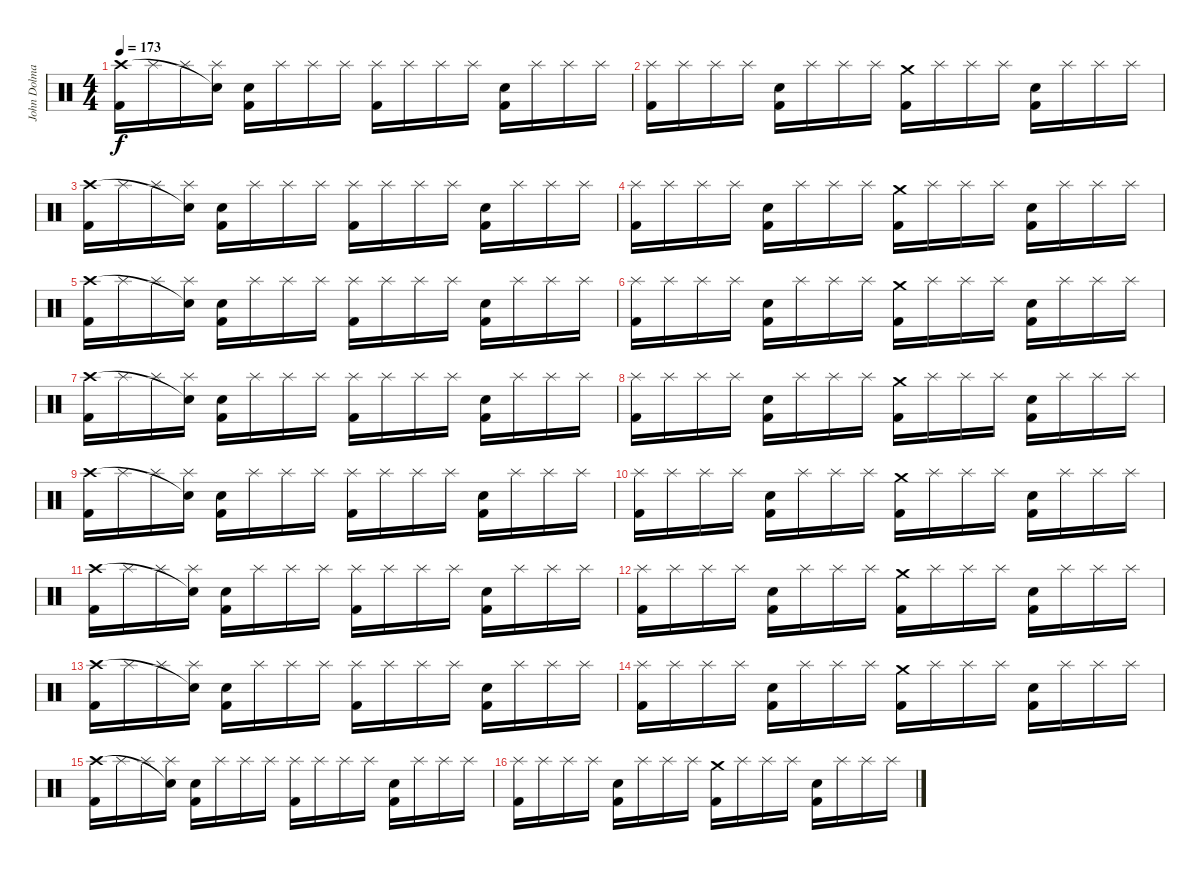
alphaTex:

\track ("John Dolmayan" "John Dolma") {instrument percussion}
\staff {score}
\articulation defaults
\ts (4 4)
\tempo 173
\clef neutral
\ks c
("Kick (hit) 2" "Crash high (hit)").16{dy f} "Splash (hit)".16 "Splash (hit)".16 ("Splash (hit)" "Snare (hit)"{t}).16 ("Electric Snare (hit)" "Kick (hit) 2").16 "Splash (hit)".16 "Splash (hit)".16 "Splash (hit)".16 ("Kick (hit) 2" "Splash (hit)").16 "Splash (hit)".16 "Splash (hit)".16 "Splash (hit)".16 ("Electric Snare (hit)" "Kick (hit) 2").16 "Splash (hit)".16 "Splash (hit)".16 "Splash (hit)".16 |
("Kick (hit) 2" "Splash (hit)").16 "Splash (hit)".16 "Splash (hit)".16 "Splash (hit)".16 ("Electric Snare (hit)" "Kick (hit) 2").16 "Splash (hit)".16 "Splash (hit)".16 "Splash (hit)".16 ("Kick (hit) 2" "Crash medium (hit)").16 "Splash (hit)".16 "Splash (hit)".16 "Splash (hit)".16 ("Electric Snare (hit)" "Kick (hit) 2").16 "Splash (hit)".16 "Splash (hit)".16 "Splash (hit)".16 |
("Kick (hit) 2" "Crash high (hit)").16 "Splash (hit)".16 "Splash (hit)".16 ("Splash (hit)" "Snare (hit)"{t}).16 ("Electric Snare (hit)" "Kick (hit) 2").16 "Splash (hit)".16 "Splash (hit)".16 "Splash (hit)".16 ("Kick (hit) 2" "Splash (hit)").16 "Splash (hit)".16 "Splash (hit)".16 "Splash (hit)".16 ("Electric Snare (hit)" "Kick (hit) 2").16 "Splash (hit)".16 "Splash (hit)".16 "Splash (hit)".16 |
("Kick (hit) 2" "Splash (hit)").16 "Splash (hit)".16 "Splash (hit)".16 "Splash (hit)".16 ("Electric Snare (hit)" "Kick (hit) 2").16 "Splash (hit)".16 "Splash (hit)".16 "Splash (hit)".16 ("Kick (hit) 2" "Crash medium (hit)").16 "Splash (hit)".16 "Splash (hit)".16 "Splash (hit)".16 ("Electric Snare (hit)" "Kick (hit) 2").16 "Splash (hit)".16 "Splash (hit)".16 "Splash (hit)".16 |
("Kick (hit) 2" "Crash high (hit)").16 "Splash (hit)".16 "Splash (hit)".16 ("Splash (hit)" "Snare (hit)"{t}).16 ("Electric Snare (hit)" "Kick (hit) 2").16 "Splash (hit)".16 "Splash (hit)".16 "Splash (hit)".16 ("Kick (hit) 2" "Splash (hit)").16 "Splash (hit)".16 "Splash (hit)".16 "Splash (hit)".16 ("Electric Snare (hit)" "Kick (hit) 2").16 "Splash (hit)".16 "Splash (hit)".16 "Splash (hit)".16 |
("Kick (hit) 2" "Splash (hit)").16 "Splash (hit)".16 "Splash (hit)".16 "Splash (hit)".16 ("Electric Snare (hit)" "Kick (hit) 2").16 "Splash (hit)".16 "Splash (hit)".16 "Splash (hit)".16 ("Kick (hit) 2" "Crash medium (hit)").16 "Splash (hit)".16 "Splash (hit)".16 "Splash (hit)".16 ("Electric Snare (hit)" "Kick (hit) 2").16 "Splash (hit)".16 "Splash (hit)".16 "Splash (hit)".16 |
("Kick (hit) 2" "Crash high (hit)").16 "Splash (hit)".16 "Splash (hit)".16 ("Splash (hit)" "Snare (hit)"{t}).16 ("Electric Snare (hit)" "Kick (hit) 2").16 "Splash (hit)".16 "Splash (hit)".16 "Splash (hit)".16 ("Kick (hit) 2" "Splash (hit)").16 "Splash (hit)".16 "Splash (hit)".16 "Splash (hit)".16 ("Electric Snare (hit)" "Kick (hit) 2").16 "Splash (hit)".16 "Splash (hit)".16 "Splash (hit)".16 |
("Kick (hit) 2" "Splash (hit)").16 "Splash (hit)".16 "Splash (hit)".16 "Splash (hit)".16 ("Electric Snare (hit)" "Kick (hit) 2").16 "Splash (hit)".16 "Splash (hit)".16 "Splash (hit)".16 ("Kick (hit) 2" "Crash medium (hit)").16 "Splash (hit)".16 "Splash (hit)".16 "Splash (hit)".16 ("Electric Snare (hit)" "Kick (hit) 2").16 "Splash (hit)".16 "Splash (hit)".16 "Splash (hit)".16 |
("Kick (hit) 2" "Crash high (hit)").16 "Splash (hit)".16 "Splash (hit)".16 ("Splash (hit)" "Snare (hit)"{t}).16 ("Electric Snare (hit)" "Kick (hit) 2").16 "Splash (hit)".16 "Splash (hit)".16 "Splash (hit)".16 ("Kick (hit) 2" "Splash (hit)").16 "Splash (hit)".16 "Splash (hit)".16 "Splash (hit)".16 ("Electric Snare (hit)" "Kick (hit) 2").16 "Splash (hit)".16 "Splash (hit)".16 "Splash (hit)".16 |
("Kick (hit) 2" "Splash (hit)").16 "Splash (hit)".16 "Splash (hit)".16 "Splash (hit)".16 ("Electric Snare (hit)" "Kick (hit) 2").16 "Splash (hit)".16 "Splash (hit)".16 "Splash (hit)".16 ("Kick (hit) 2" "Crash medium (hit)").16 "Splash (hit)".16 "Splash (hit)".16 "Splash (hit)".16 ("Electric Snare (hit)" "Kick (hit) 2").16 "Splash (hit)".16 "Splash (hit)".16 "Splash (hit)".16 |
("Kick (hit) 2" "Crash high (hit)").16 "Splash (hit)".16 "Splash (hit)".16 ("Splash (hit)" "Snare (hit)"{t}).16 ("Electric Snare (hit)" "Kick (hit) 2").16 "Splash (hit)".16 "Splash (hit)".16 "Splash (hit)".16 ("Kick (hit) 2" "Splash (hit)").16 "Splash (hit)".16 "Splash (hit)".16 "Splash (hit)".16 ("Electric Snare (hit)" "Kick (hit) 2").16 "Splash (hit)".16 "Splash (hit)".16 "Splash (hit)".16 |
("Kick (hit) 2" "Splash (hit)").16 "Splash (hit)".16 "Splash (hit)".16 "Splash (hit)".16 ("Electric Snare (hit)" "Kick (hit) 2").16 "Splash (hit)".16 "Splash (hit)".16 "Splash (hit)".16 ("Kick (hit) 2" "Crash medium (hit)").16 "Splash (hit)".16 "Splash (hit)".16 "Splash (hit)".16 ("Electric Snare (hit)" "Kick (hit) 2").16 "Splash (hit)".16 "Splash (hit)".16 "Splash (hit)".16 |
("Kick (hit) 2" "Crash high (hit)").16 "Splash (hit)".16 "Splash (hit)".16 ("Splash (hit)" "Snare (hit)"{t}).16 ("Electric Snare (hit)" "Kick (hit) 2").16 "Splash (hit)".16 "Splash (hit)".16 "Splash (hit)".16 ("Kick (hit) 2" "Splash (hit)").16 "Splash (hit)".16 "Splash (hit)".16 "Splash (hit)".16 ("Electric Snare (hit)" "Kick (hit) 2").16 "Splash (hit)".16 "Splash (hit)".16 "Splash (hit)".16 |
("Kick (hit) 2" "Splash (hit)").16 "Splash (hit)".16 "Splash (hit)".16 "Splash (hit)".16 ("Electric Snare (hit)" "Kick (hit) 2").16 "Splash (hit)".16 "Splash (hit)".16 "Splash (hit)".16 ("Kick (hit) 2" "Crash medium (hit)").16 "Splash (hit)".16 "Splash (hit)".16 "Splash (hit)".16 ("Electric Snare (hit)" "Kick (hit) 2").16 "Splash (hit)".16 "Splash (hit)".16 "Splash (hit)".16 |
("Kick (hit) 2" "Crash high (hit)").16 "Splash (hit)".16 "Splash (hit)".16 ("Splash (hit)" "Snare (hit)"{t}).16 ("Electric Snare (hit)" "Kick (hit) 2").16 "Splash (hit)".16 "Splash (hit)".16 "Splash (hit)".16 ("Kick (hit) 2" "Splash (hit)").16 "Splash (hit)".16 "Splash (hit)".16 "Splash (hit)".16 ("Electric Snare (hit)" "Kick (hit) 2").16 "Splash (hit)".16 "Splash (hit)".16 "Splash (hit)".16 |
("Kick (hit) 2" "Splash (hit)").16 "Splash (hit)".16 "Splash (hit)".16 "Splash (hit)".16 ("Electric Snare (hit)" "Kick (hit) 2").16 "Splash (hit)".16 "Splash (hit)".16 "Splash (hit)".16 ("Kick (hit) 2" "Crash medium (hit)").16 "Splash (hit)".16 "Splash (hit)".16 "Splash (hit)".16 ("Electric Snare (hit)" "Kick (hit) 2").16 "Splash (hit)".16 "Splash (hit)".16 "Splash (hit)".16
